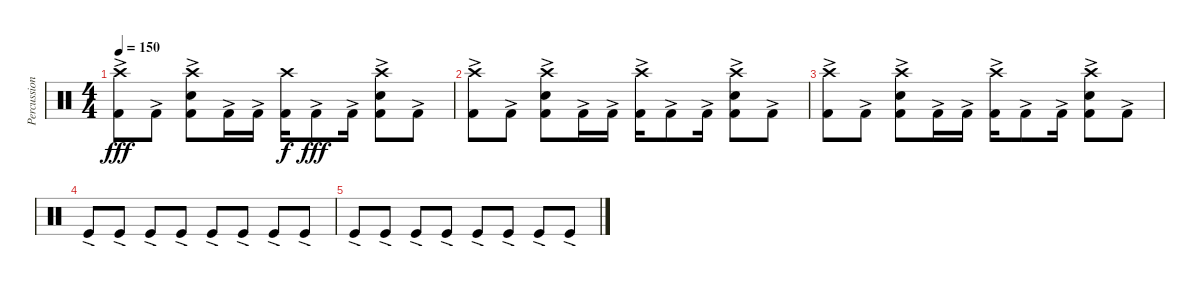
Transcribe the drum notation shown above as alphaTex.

\track ("Percussions" "Percussion") {instrument percussion}
\staff {score}
\articulation defaults
\ts (4 4)
\tempo 150
\clef neutral
\ks c
("Crash high (hit)" "Kick (hit) 2"{ac}).8{dy fff} "Kick (hit) 2"{ac}.8 ("Snare (hit) 2" "Crash high (hit)" "Kick (hit) 2"{ac}).8 "Kick (hit) 2"{ac}.16 "Kick (hit) 2"{ac}.16 ("Crash high (hit)" "Kick (hit) 2").16{dy f} "Kick (hit) 2"{ac}.8{dy fff} "Kick (hit) 2"{ac}.16 ("Snare (hit) 2" "Crash high (hit)" "Kick (hit) 2"{ac}).8 "Kick (hit) 2"{ac}.8 |
("Crash high (hit)" "Kick (hit) 2"{ac}).8 "Kick (hit) 2"{ac}.8 ("Snare (hit) 2" "Crash high (hit)" "Kick (hit) 2"{ac}).8 "Kick (hit) 2"{ac}.16 "Kick (hit) 2"{ac}.16 ("Crash high (hit)" "Kick (hit) 2"{ac}).16 "Kick (hit) 2"{ac}.8 "Kick (hit) 2"{ac}.16 ("Snare (hit) 2" "Crash high (hit)" "Kick (hit) 2"{ac}).8 "Kick (hit) 2"{ac}.8 |
("Crash high (hit)" "Kick (hit) 2"{ac}).8 "Kick (hit) 2"{ac}.8 ("Snare (hit) 2" "Crash high (hit)" "Kick (hit) 2"{ac}).8 "Kick (hit) 2"{ac}.16 "Kick (hit) 2"{ac}.16 ("Crash high (hit)" "Kick (hit) 2"{ac}).16 "Kick (hit) 2"{ac}.8 "Kick (hit) 2"{ac}.16 ("Snare (hit) 2" "Crash high (hit)" "Kick (hit) 2"{ac}).8 "Kick (hit) 2"{ac}.8 |
"Kick (hit)"{ac}.8 "Kick (hit)"{ac}.8 "Kick (hit)"{ac}.8 "Kick (hit)"{ac}.8 "Kick (hit)"{ac}.8 "Kick (hit)"{ac}.8 "Kick (hit)"{ac}.8 "Kick (hit)"{ac}.8 |
"Kick (hit)"{ac}.8 "Kick (hit)"{ac}.8 "Kick (hit)"{ac}.8 "Kick (hit)"{ac}.8 "Kick (hit)"{ac}.8 "Kick (hit)"{ac}.8 "Kick (hit)"{ac}.8 "Kick (hit)"{ac}.8
